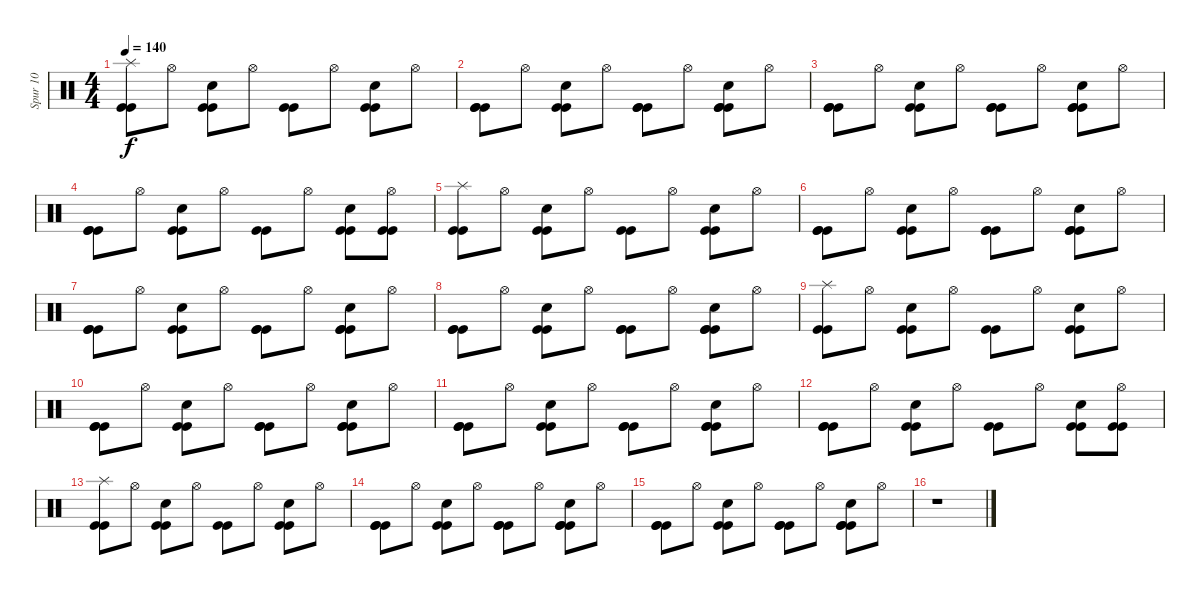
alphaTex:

\track ("Spur 10" "Spur 10") {instrument percussion}
\staff {score}
\articulation defaults
\ts (4 4)
\tempo 140
\clef neutral
\ks c
("Kick (hit)" "Kick (hit)" "Splash (hit)").8{dy f} "Hi-Hat (open)".8 ("Kick (hit)" "Hand Clap (hit)" "Kick (hit)").8 "Hi-Hat (open)".8 ("Kick (hit)" "Kick (hit)").8 "Hi-Hat (open)".8 ("Kick (hit)" "Hand Clap (hit)" "Kick (hit)").8 "Hi-Hat (open)".8 |
("Kick (hit)" "Kick (hit)" "Kick (hit)").8 "Hi-Hat (open)".8 ("Kick (hit)" "Kick (hit)" "Hand Clap (hit)").8 "Hi-Hat (open)".8 ("Kick (hit)" "Kick (hit)" "Kick (hit)").8 "Hi-Hat (open)".8 ("Kick (hit)" "Kick (hit)" "Hand Clap (hit)" "Kick (hit)").8 "Hi-Hat (open)".8 |
("Kick (hit)" "Kick (hit)" "Kick (hit)").8 "Hi-Hat (open)".8 ("Kick (hit)" "Kick (hit)" "Hand Clap (hit)").8 "Hi-Hat (open)".8 ("Kick (hit)" "Kick (hit)" "Kick (hit)").8 "Hi-Hat (open)".8 ("Kick (hit)" "Kick (hit)" "Hand Clap (hit)" "Kick (hit)").8 "Hi-Hat (open)".8 |
("Kick (hit)" "Kick (hit)" "Kick (hit)").8 "Hi-Hat (open)".8 ("Kick (hit)" "Kick (hit)" "Hand Clap (hit)").8 "Hi-Hat (open)".8 ("Kick (hit)" "Kick (hit)").8 "Hi-Hat (open)".8 ("Kick (hit)" "Hand Clap (hit)" "Kick (hit)").8 ("Kick (hit)" "Kick (hit)" "Hi-Hat (open)").8 |
("Kick (hit)" "Kick (hit)" "Splash (hit)").8 "Hi-Hat (open)".8 ("Kick (hit)" "Hand Clap (hit)" "Kick (hit)").8 "Hi-Hat (open)".8 ("Kick (hit)" "Kick (hit)").8 "Hi-Hat (open)".8 ("Kick (hit)" "Hand Clap (hit)" "Kick (hit)").8 "Hi-Hat (open)".8 |
("Kick (hit)" "Kick (hit)" "Kick (hit)").8 "Hi-Hat (open)".8 ("Kick (hit)" "Kick (hit)" "Hand Clap (hit)").8 "Hi-Hat (open)".8 ("Kick (hit)" "Kick (hit)" "Kick (hit)").8 "Hi-Hat (open)".8 ("Kick (hit)" "Kick (hit)" "Hand Clap (hit)" "Kick (hit)").8 "Hi-Hat (open)".8 |
("Kick (hit)" "Kick (hit)" "Kick (hit)").8 "Hi-Hat (open)".8 ("Kick (hit)" "Kick (hit)" "Hand Clap (hit)").8 "Hi-Hat (open)".8 ("Kick (hit)" "Kick (hit)" "Kick (hit)").8 "Hi-Hat (open)".8 ("Kick (hit)" "Kick (hit)" "Hand Clap (hit)" "Kick (hit)").8 "Hi-Hat (open)".8 |
("Kick (hit)" "Kick (hit)" "Kick (hit)").8 "Hi-Hat (open)".8 ("Kick (hit)" "Kick (hit)" "Hand Clap (hit)").8 "Hi-Hat (open)".8 ("Kick (hit)" "Kick (hit)" "Kick (hit)").8 "Hi-Hat (open)".8 ("Kick (hit)" "Kick (hit)" "Hand Clap (hit)" "Kick (hit)").8 "Hi-Hat (open)".8 |
("Kick (hit)" "Kick (hit)" "Splash (hit)").8 "Hi-Hat (open)".8 ("Kick (hit)" "Hand Clap (hit)" "Kick (hit)").8 "Hi-Hat (open)".8 ("Kick (hit)" "Kick (hit)").8 "Hi-Hat (open)".8 ("Kick (hit)" "Hand Clap (hit)" "Kick (hit)").8 "Hi-Hat (open)".8 |
("Kick (hit)" "Kick (hit)" "Kick (hit)").8 "Hi-Hat (open)".8 ("Kick (hit)" "Kick (hit)" "Hand Clap (hit)").8 "Hi-Hat (open)".8 ("Kick (hit)" "Kick (hit)" "Kick (hit)").8 "Hi-Hat (open)".8 ("Kick (hit)" "Kick (hit)" "Hand Clap (hit)" "Kick (hit)").8 "Hi-Hat (open)".8 |
("Kick (hit)" "Kick (hit)" "Kick (hit)").8 "Hi-Hat (open)".8 ("Kick (hit)" "Kick (hit)" "Hand Clap (hit)").8 "Hi-Hat (open)".8 ("Kick (hit)" "Kick (hit)" "Kick (hit)").8 "Hi-Hat (open)".8 ("Kick (hit)" "Kick (hit)" "Hand Clap (hit)" "Kick (hit)").8 "Hi-Hat (open)".8 |
("Kick (hit)" "Kick (hit)" "Kick (hit)").8 "Hi-Hat (open)".8 ("Kick (hit)" "Kick (hit)" "Hand Clap (hit)").8 "Hi-Hat (open)".8 ("Kick (hit)" "Kick (hit)").8 "Hi-Hat (open)".8 ("Kick (hit)" "Hand Clap (hit)" "Kick (hit)").8 ("Kick (hit)" "Kick (hit)" "Hi-Hat (open)").8 |
("Kick (hit)" "Kick (hit)" "Splash (hit)").8 "Hi-Hat (open)".8 ("Kick (hit)" "Hand Clap (hit)" "Kick (hit)").8 "Hi-Hat (open)".8 ("Kick (hit)" "Kick (hit)").8 "Hi-Hat (open)".8 ("Kick (hit)" "Hand Clap (hit)" "Kick (hit)").8 "Hi-Hat (open)".8 |
("Kick (hit)" "Kick (hit)" "Kick (hit)").8 "Hi-Hat (open)".8 ("Kick (hit)" "Kick (hit)" "Hand Clap (hit)").8 "Hi-Hat (open)".8 ("Kick (hit)" "Kick (hit)" "Kick (hit)").8 "Hi-Hat (open)".8 ("Kick (hit)" "Kick (hit)" "Hand Clap (hit)" "Kick (hit)").8 "Hi-Hat (open)".8 |
("Kick (hit)" "Kick (hit)" "Kick (hit)").8 "Hi-Hat (open)".8 ("Kick (hit)" "Kick (hit)" "Hand Clap (hit)").8 "Hi-Hat (open)".8 ("Kick (hit)" "Kick (hit)" "Kick (hit)").8 "Hi-Hat (open)".8 ("Kick (hit)" "Kick (hit)" "Hand Clap (hit)" "Kick (hit)").8 "Hi-Hat (open)".8 |
r.1
